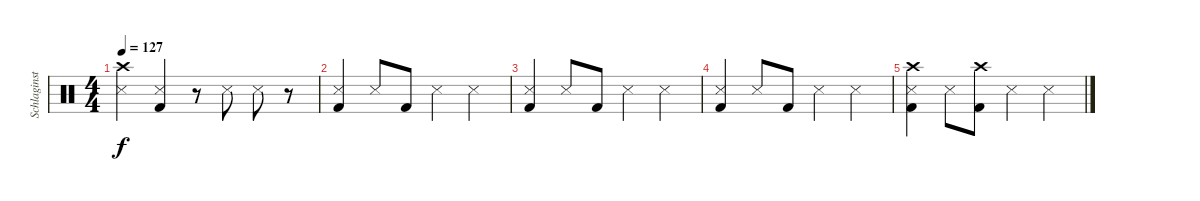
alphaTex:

\track ("Schlaginstrumente - Auswahl" "Schlaginst") {instrument percussion}
\staff {score}
\articulation defaults
\ts (4 4)
\tempo 127
\clef neutral
\ks c
("Crash high (hit)" "Snare (side stick) 3").4{dy f} ("Snare (side stick) 3" "Kick (hit) 2").4 r.8 "Snare (side stick) 3".8 "Snare (side stick) 3".8 r.8 |
("Snare (side stick) 3" "Kick (hit) 2").4 "Snare (side stick) 3".8 "Kick (hit) 2".8 "Snare (side stick) 3".4 "Snare (side stick) 3".4 |
("Snare (side stick) 3" "Kick (hit) 2").4 "Snare (side stick) 3".8 "Kick (hit) 2".8 "Snare (side stick) 3".4 "Snare (side stick) 3".4 |
("Snare (side stick) 3" "Kick (hit) 2").4 "Snare (side stick) 3".8 "Kick (hit) 2".8 "Snare (side stick) 3".4 "Snare (side stick) 3".4 |
("Crash high (hit)" "Snare (side stick) 3" "Kick (hit) 2").4 "Snare (side stick) 3".8 ("Crash high (hit)" "Kick (hit) 2").8 "Snare (side stick) 3".4 "Snare (side stick) 3".4
